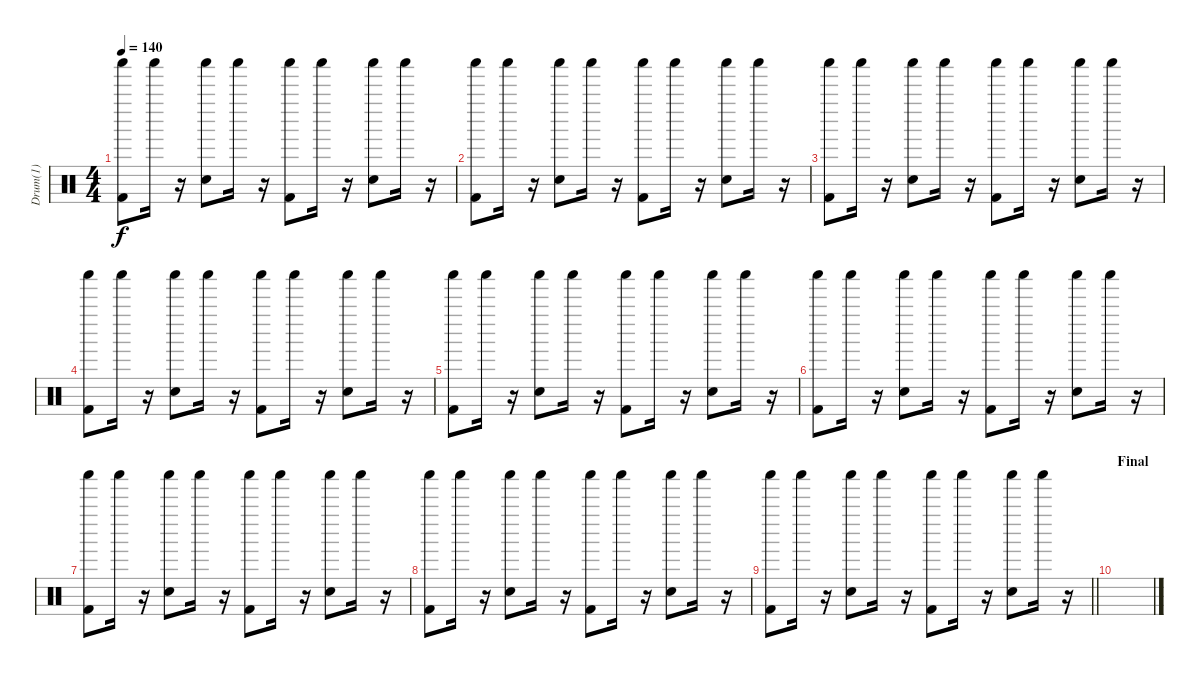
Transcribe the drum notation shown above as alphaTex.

\track ("Drum(1)" "Drum(1)") {instrument percussion}
\staff {score}
\articulation defaults
\ts (4 4)
\tempo 140
\clef neutral
\ks c
("Kick (hit) 2" "Shaker (hit)").8{dy f} "Shaker (hit)".16 r.16 ("Electric Snare (hit)" "Shaker (hit)").8 "Shaker (hit)".16 r.16 ("Kick (hit) 2" "Shaker (hit)").8 "Shaker (hit)".16 r.16 ("Electric Snare (hit)" "Shaker (hit)").8 "Shaker (hit)".16 r.16 |
("Kick (hit) 2" "Shaker (hit)").8 "Shaker (hit)".16 r.16 ("Electric Snare (hit)" "Shaker (hit)").8 "Shaker (hit)".16 r.16 ("Kick (hit) 2" "Shaker (hit)").8 "Shaker (hit)".16 r.16 ("Electric Snare (hit)" "Shaker (hit)").8 "Shaker (hit)".16 r.16 |
("Kick (hit) 2" "Shaker (hit)").8 "Shaker (hit)".16 r.16 ("Electric Snare (hit)" "Shaker (hit)").8 "Shaker (hit)".16 r.16 ("Kick (hit) 2" "Shaker (hit)").8 "Shaker (hit)".16 r.16 ("Electric Snare (hit)" "Shaker (hit)").8 "Shaker (hit)".16 r.16 |
("Kick (hit) 2" "Shaker (hit)").8 "Shaker (hit)".16 r.16 ("Electric Snare (hit)" "Shaker (hit)").8 "Shaker (hit)".16 r.16 ("Kick (hit) 2" "Shaker (hit)").8 "Shaker (hit)".16 r.16 ("Electric Snare (hit)" "Shaker (hit)").8 "Shaker (hit)".16 r.16 |
("Kick (hit) 2" "Shaker (hit)").8 "Shaker (hit)".16 r.16 ("Electric Snare (hit)" "Shaker (hit)").8 "Shaker (hit)".16 r.16 ("Kick (hit) 2" "Shaker (hit)").8 "Shaker (hit)".16 r.16 ("Electric Snare (hit)" "Shaker (hit)").8 "Shaker (hit)".16 r.16 |
("Kick (hit) 2" "Shaker (hit)").8 "Shaker (hit)".16 r.16 ("Electric Snare (hit)" "Shaker (hit)").8 "Shaker (hit)".16 r.16 ("Kick (hit) 2" "Shaker (hit)").8 "Shaker (hit)".16 r.16 ("Electric Snare (hit)" "Shaker (hit)").8 "Shaker (hit)".16 r.16 |
("Kick (hit) 2" "Shaker (hit)").8 "Shaker (hit)".16 r.16 ("Electric Snare (hit)" "Shaker (hit)").8 "Shaker (hit)".16 r.16 ("Kick (hit) 2" "Shaker (hit)").8 "Shaker (hit)".16 r.16 ("Electric Snare (hit)" "Shaker (hit)").8 "Shaker (hit)".16 r.16 |
("Kick (hit) 2" "Shaker (hit)").8 "Shaker (hit)".16 r.16 ("Electric Snare (hit)" "Shaker (hit)").8 "Shaker (hit)".16 r.16 ("Kick (hit) 2" "Shaker (hit)").8 "Shaker (hit)".16 r.16 ("Electric Snare (hit)" "Shaker (hit)").8 "Shaker (hit)".16 r.16 |
\barLineRight lightlight
("Kick (hit) 2" "Shaker (hit)").8 "Shaker (hit)".16 r.16 ("Electric Snare (hit)" "Shaker (hit)").8 "Shaker (hit)".16 r.16 ("Kick (hit) 2" "Shaker (hit)").8 "Shaker (hit)".16 r.16 ("Electric Snare (hit)" "Shaker (hit)").8 "Shaker (hit)".16 r.16 |
\section ("" "Final")
